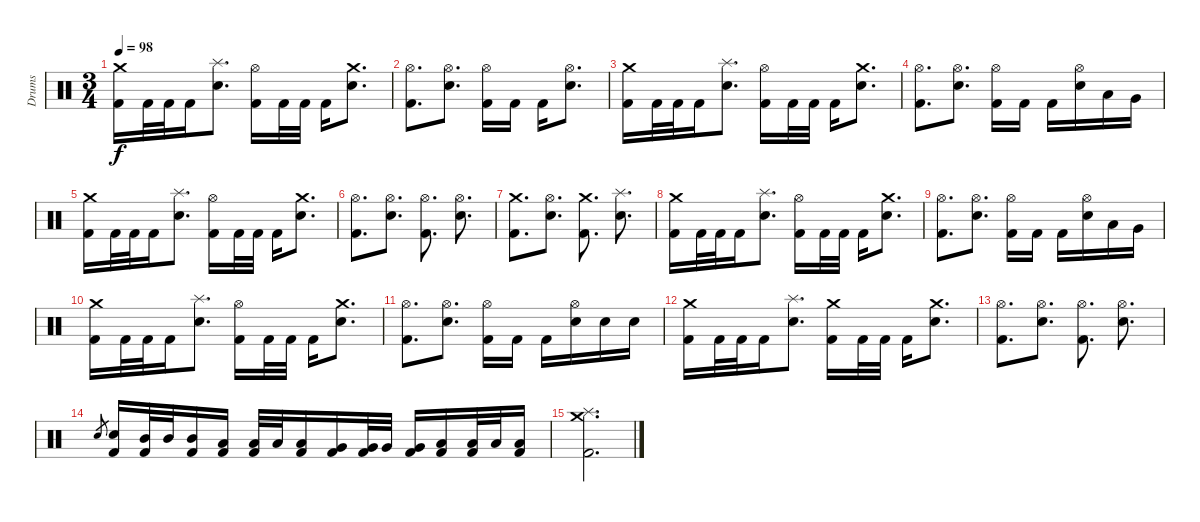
\track ("Drums" "Drums") {instrument percussion}
\staff {score}
\articulation defaults
\ts (3 4)
\tempo 98
\clef neutral
\ks c
("Crash medium (hit)" "Kick (hit) 2").16{dy f} "Kick (hit) 2".32 "Kick (hit) 2".32 "Kick (hit) 2".16 ("Splash (hit)" "Electric Snare (hit)").8{d} ("Hi-Hat (open)" "Kick (hit) 2").16 "Kick (hit) 2".32 "Kick (hit) 2".32 "Kick (hit) 2".16 ("Crash medium (hit)" "Electric Snare (hit)").8{d} |
("Hi-Hat (open)" "Kick (hit) 2").8{d} ("Hi-Hat (open)" "Electric Snare (hit)").8{d} ("Hi-Hat (open)" "Kick (hit) 2").16 "Kick (hit) 2".16 "Kick (hit) 2".16 ("Hi-Hat (open)" "Electric Snare (hit)").8{d} |
("Crash medium (hit)" "Kick (hit) 2").16 "Kick (hit) 2".32 "Kick (hit) 2".32 "Kick (hit) 2".16 ("Splash (hit)" "Electric Snare (hit)").8{d} ("Hi-Hat (open)" "Kick (hit) 2").16 "Kick (hit) 2".32 "Kick (hit) 2".32 "Kick (hit) 2".16 ("Crash medium (hit)" "Electric Snare (hit)").8{d} |
("Hi-Hat (open)" "Kick (hit) 2").8{d} ("Hi-Hat (open)" "Electric Snare (hit)").8{d} ("Hi-Hat (open)" "Kick (hit) 2").16 "Kick (hit) 2".16 "Kick (hit) 2".16 ("Hi-Hat (open)" "Electric Snare (hit)").16 "Low Tom (hit)".16 "Very Low Tom (hit)".16 |
("Crash medium (hit)" "Kick (hit) 2").16 "Kick (hit) 2".32 "Kick (hit) 2".32 "Kick (hit) 2".16 ("Splash (hit)" "Electric Snare (hit)").8{d} ("Hi-Hat (open)" "Kick (hit) 2").16 "Kick (hit) 2".32 "Kick (hit) 2".32 "Kick (hit) 2".16 ("Crash medium (hit)" "Electric Snare (hit)").8{d} |
("Hi-Hat (open)" "Kick (hit) 2").8{d} ("Hi-Hat (open)" "Electric Snare (hit)").8{d} ("Hi-Hat (open)" "Kick (hit) 2").8{d} ("Hi-Hat (open)" "Electric Snare (hit)").8{d} |
("Crash medium (hit)" "Kick (hit) 2").8{d} ("Hi-Hat (open)" "Electric Snare (hit)").8{d} ("Crash medium (hit)" "Kick (hit) 2").8{d} ("Splash (hit)" "Electric Snare (hit)").8{d} |
("Crash medium (hit)" "Kick (hit) 2").16 "Kick (hit) 2".32 "Kick (hit) 2".32 "Kick (hit) 2".16 ("Splash (hit)" "Electric Snare (hit)").8{d} ("Hi-Hat (open)" "Kick (hit) 2").16 "Kick (hit) 2".32 "Kick (hit) 2".32 "Kick (hit) 2".16 ("Crash medium (hit)" "Electric Snare (hit)").8{d} |
("Hi-Hat (open)" "Kick (hit) 2").8{d} ("Hi-Hat (open)" "Electric Snare (hit)").8{d} ("Hi-Hat (open)" "Kick (hit) 2").16 "Kick (hit) 2".16 "Kick (hit) 2".16 ("Hi-Hat (open)" "Electric Snare (hit)").16 "Low Tom (hit)".16 "Very Low Tom (hit)".16 |
("Crash medium (hit)" "Kick (hit) 2").16 "Kick (hit) 2".32 "Kick (hit) 2".32 "Kick (hit) 2".16 ("Splash (hit)" "Electric Snare (hit)").8{d} ("Hi-Hat (open)" "Kick (hit) 2").16 "Kick (hit) 2".32 "Kick (hit) 2".32 "Kick (hit) 2".16 ("Crash medium (hit)" "Electric Snare (hit)").8{d} |
("Hi-Hat (open)" "Kick (hit) 2").8{d} ("Hi-Hat (open)" "Electric Snare (hit)").8{d} ("Hi-Hat (open)" "Kick (hit) 2").16 "Kick (hit) 2".16 "Kick (hit) 2".16 ("Hi-Hat (open)" "Electric Snare (hit)").16 "Electric Snare (hit)".16 "Electric Snare (hit)".16 |
("Crash medium (hit)" "Kick (hit) 2").16 "Kick (hit) 2".32 "Kick (hit) 2".32 "Kick (hit) 2".16 ("Splash (hit)" "Electric Snare (hit)").8{d} ("Crash medium (hit)" "Kick (hit) 2").16 "Kick (hit) 2".32 "Kick (hit) 2".32 "Kick (hit) 2".16 ("Crash medium (hit)" "Electric Snare (hit)").8{d} |
("Hi-Hat (open)" "Kick (hit) 2").8{d} ("Hi-Hat (open)" "Electric Snare (hit)").8{d} ("Hi-Hat (open)" "Kick (hit) 2").8{d} ("Hi-Hat (open)" "Electric Snare (hit)").8{d} |
"Electric Snare (hit)".8{gr} ("Electric Snare (hit)" "Kick (hit) 2").16 ("Mid Tom (hit)" "Kick (hit) 2").32 "Mid Tom (hit)".32 ("Mid Tom (hit)" "Kick (hit) 2").16 ("Low Tom (hit)" "Kick (hit) 2").16 ("Low Tom (hit)" "Kick (hit) 2").32 "Low Tom (hit)".32 ("Low Tom (hit)" "Kick (hit) 2").16 ("Very Low Tom (hit)" "Kick (hit) 2").16 ("Very Low Tom (hit)" "Kick (hit) 2").32 "Very Low Tom (hit)".32 ("Very Low Tom (hit)" "Kick (hit) 2").16 ("Low Floor Tom (hit)" "Kick (hit) 2").16 ("Low Floor Tom (hit)" "Kick (hit) 2").32 "Low Floor Tom (hit)".32 ("Low Floor Tom (hit)" "Kick (hit) 2").16 |
("Crash medium (hit)" "Splash (hit)" "Kick (hit) 2").2{d}
